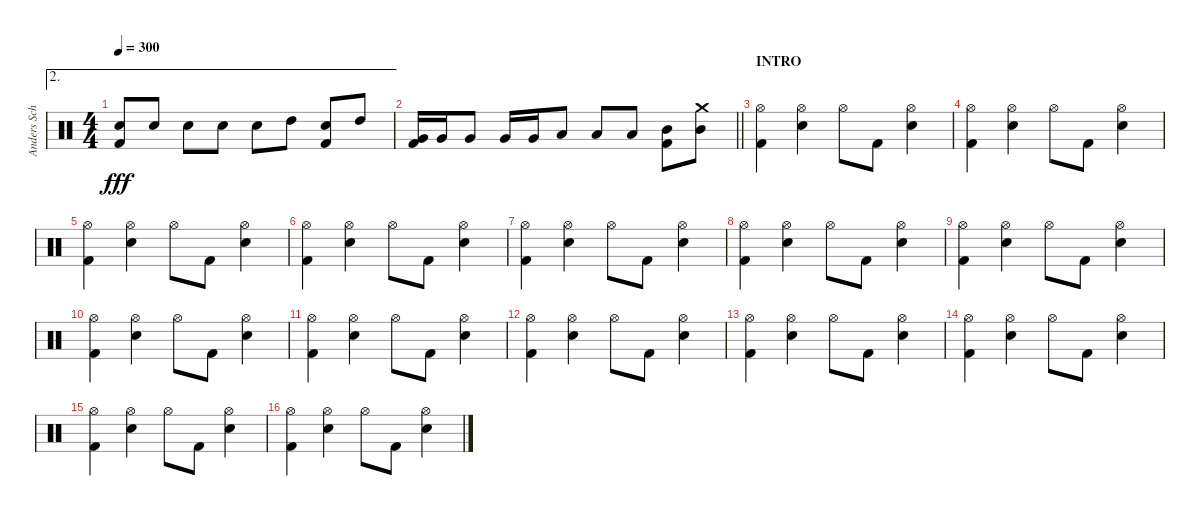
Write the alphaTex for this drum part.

\track ("Anders Schultz" "Anders Sch") {instrument percussion}
\staff {score}
\articulation defaults
\ae 2
\ts (4 4)
\tempo 300
\clef neutral
\ks c
("Snare (hit) 2" "Kick (hit) 2").8{dy fff} "Snare (hit) 2".8 "Snare (hit) 2".8 "Snare (hit) 2".8 "Snare (hit) 2".8 "High Tom (hit)".8 ("Snare (hit) 2" "Kick (hit) 2").8 "High Tom (hit)".8 |
\barLineRight lightlight
("Kick (hit) 2" "Very Low Tom (hit)").16 "Very Low Tom (hit)".16 "Very Low Tom (hit)".8 "Very Low Tom (hit)".16 "Very Low Tom (hit)".16 "Low Tom (hit)".8 "Low Tom (hit)".8 "Low Tom (hit)".8 ("Kick (hit) 2" "Mid Tom (hit)").8 ("Crash medium (hit)" "Mid Tom (hit)").8 |
\section ("" "INTRO")
("Hi-Hat (open)" "Kick (hit) 2").4 ("Hi-Hat (open)" "Snare (hit) 2").4 "Hi-Hat (open)".8 "Kick (hit) 2".8 ("Hi-Hat (open)" "Snare (hit) 2").4 |
("Hi-Hat (open)" "Kick (hit) 2").4 ("Hi-Hat (open)" "Snare (hit) 2").4 "Hi-Hat (open)".8 "Kick (hit) 2".8 ("Hi-Hat (open)" "Snare (hit) 2").4 |
("Hi-Hat (open)" "Kick (hit) 2").4 ("Hi-Hat (open)" "Snare (hit) 2").4 "Hi-Hat (open)".8 "Kick (hit) 2".8 ("Hi-Hat (open)" "Snare (hit) 2").4 |
("Hi-Hat (open)" "Kick (hit) 2").4 ("Hi-Hat (open)" "Snare (hit) 2").4 "Hi-Hat (open)".8 "Kick (hit) 2".8 ("Hi-Hat (open)" "Snare (hit) 2").4 |
("Hi-Hat (open)" "Kick (hit) 2").4 ("Hi-Hat (open)" "Snare (hit) 2").4 "Hi-Hat (open)".8 "Kick (hit) 2".8 ("Hi-Hat (open)" "Snare (hit) 2").4 |
("Hi-Hat (open)" "Kick (hit) 2").4 ("Hi-Hat (open)" "Snare (hit) 2").4 "Hi-Hat (open)".8 "Kick (hit) 2".8 ("Hi-Hat (open)" "Snare (hit) 2").4 |
("Hi-Hat (open)" "Kick (hit) 2").4 ("Hi-Hat (open)" "Snare (hit) 2").4 "Hi-Hat (open)".8 "Kick (hit) 2".8 ("Hi-Hat (open)" "Snare (hit) 2").4 |
("Hi-Hat (open)" "Kick (hit) 2").4 ("Hi-Hat (open)" "Snare (hit) 2").4 "Hi-Hat (open)".8 "Kick (hit) 2".8 ("Hi-Hat (open)" "Snare (hit) 2").4 |
("Hi-Hat (open)" "Kick (hit) 2").4 ("Hi-Hat (open)" "Snare (hit) 2").4 "Hi-Hat (open)".8 "Kick (hit) 2".8 ("Hi-Hat (open)" "Snare (hit) 2").4 |
("Hi-Hat (open)" "Kick (hit) 2").4 ("Hi-Hat (open)" "Snare (hit) 2").4 "Hi-Hat (open)".8 "Kick (hit) 2".8 ("Hi-Hat (open)" "Snare (hit) 2").4 |
("Hi-Hat (open)" "Kick (hit) 2").4 ("Hi-Hat (open)" "Snare (hit) 2").4 "Hi-Hat (open)".8 "Kick (hit) 2".8 ("Hi-Hat (open)" "Snare (hit) 2").4 |
("Hi-Hat (open)" "Kick (hit) 2").4 ("Hi-Hat (open)" "Snare (hit) 2").4 "Hi-Hat (open)".8 "Kick (hit) 2".8 ("Hi-Hat (open)" "Snare (hit) 2").4 |
("Hi-Hat (open)" "Kick (hit) 2").4 ("Hi-Hat (open)" "Snare (hit) 2").4 "Hi-Hat (open)".8 "Kick (hit) 2".8 ("Hi-Hat (open)" "Snare (hit) 2").4 |
("Hi-Hat (open)" "Kick (hit) 2").4 ("Hi-Hat (open)" "Snare (hit) 2").4 "Hi-Hat (open)".8 "Kick (hit) 2".8 ("Hi-Hat (open)" "Snare (hit) 2").4
